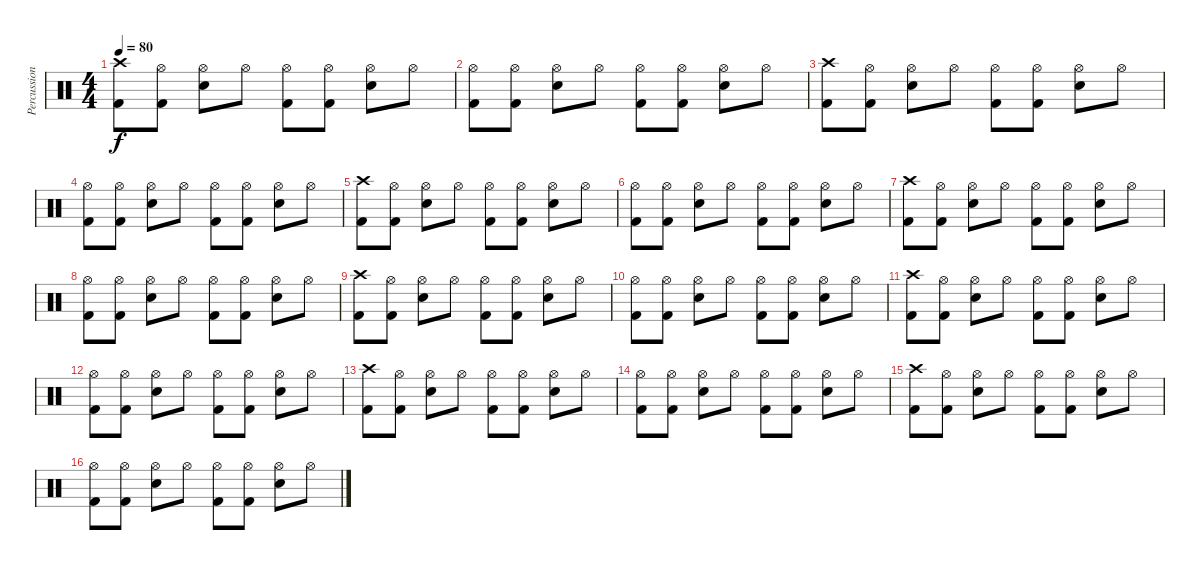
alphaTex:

\track ("Percussion" "Percussion") {instrument percussion}
\staff {score}
\articulation defaults
\ts (4 4)
\tempo 80
\clef neutral
\ks c
("Crash high (hit)" "Kick (hit) 2").8{dy f} ("Kick (hit) 2" "Hi-Hat (open)").8 ("Electric Snare (hit)" "Hi-Hat (open)").8 "Hi-Hat (open)".8 ("Hi-Hat (open)" "Kick (hit) 2").8 ("Hi-Hat (open)" "Kick (hit) 2").8 ("Electric Snare (hit)" "Hi-Hat (open)").8 "Hi-Hat (open)".8 |
("Hi-Hat (open)" "Kick (hit) 2").8 ("Kick (hit) 2" "Hi-Hat (open)").8 ("Electric Snare (hit)" "Hi-Hat (open)").8 "Hi-Hat (open)".8 ("Hi-Hat (open)" "Kick (hit) 2").8 ("Hi-Hat (open)" "Kick (hit) 2").8 ("Electric Snare (hit)" "Hi-Hat (open)").8 "Hi-Hat (open)".8 |
("Crash high (hit)" "Kick (hit) 2").8 ("Kick (hit) 2" "Hi-Hat (open)").8 ("Electric Snare (hit)" "Hi-Hat (open)").8 "Hi-Hat (open)".8 ("Hi-Hat (open)" "Kick (hit) 2").8 ("Hi-Hat (open)" "Kick (hit) 2").8 ("Electric Snare (hit)" "Hi-Hat (open)").8 "Hi-Hat (open)".8 |
("Hi-Hat (open)" "Kick (hit) 2").8 ("Kick (hit) 2" "Hi-Hat (open)").8 ("Electric Snare (hit)" "Hi-Hat (open)").8 "Hi-Hat (open)".8 ("Hi-Hat (open)" "Kick (hit) 2").8 ("Hi-Hat (open)" "Kick (hit) 2").8 ("Electric Snare (hit)" "Hi-Hat (open)").8 "Hi-Hat (open)".8 |
("Crash high (hit)" "Kick (hit) 2").8 ("Kick (hit) 2" "Hi-Hat (open)").8 ("Electric Snare (hit)" "Hi-Hat (open)").8 "Hi-Hat (open)".8 ("Hi-Hat (open)" "Kick (hit) 2").8 ("Hi-Hat (open)" "Kick (hit) 2").8 ("Electric Snare (hit)" "Hi-Hat (open)").8 "Hi-Hat (open)".8 |
("Hi-Hat (open)" "Kick (hit) 2").8 ("Kick (hit) 2" "Hi-Hat (open)").8 ("Electric Snare (hit)" "Hi-Hat (open)").8 "Hi-Hat (open)".8 ("Hi-Hat (open)" "Kick (hit) 2").8 ("Hi-Hat (open)" "Kick (hit) 2").8 ("Electric Snare (hit)" "Hi-Hat (open)").8 "Hi-Hat (open)".8 |
("Crash high (hit)" "Kick (hit) 2").8 ("Kick (hit) 2" "Hi-Hat (open)").8 ("Electric Snare (hit)" "Hi-Hat (open)").8 "Hi-Hat (open)".8 ("Hi-Hat (open)" "Kick (hit) 2").8 ("Hi-Hat (open)" "Kick (hit) 2").8 ("Electric Snare (hit)" "Hi-Hat (open)").8 "Hi-Hat (open)".8 |
("Hi-Hat (open)" "Kick (hit) 2").8 ("Kick (hit) 2" "Hi-Hat (open)").8 ("Electric Snare (hit)" "Hi-Hat (open)").8 "Hi-Hat (open)".8 ("Hi-Hat (open)" "Kick (hit) 2").8 ("Hi-Hat (open)" "Kick (hit) 2").8 ("Electric Snare (hit)" "Hi-Hat (open)").8 "Hi-Hat (open)".8 |
("Crash high (hit)" "Kick (hit) 2").8 ("Kick (hit) 2" "Hi-Hat (open)").8 ("Electric Snare (hit)" "Hi-Hat (open)").8 "Hi-Hat (open)".8 ("Hi-Hat (open)" "Kick (hit) 2").8 ("Hi-Hat (open)" "Kick (hit) 2").8 ("Electric Snare (hit)" "Hi-Hat (open)").8 "Hi-Hat (open)".8 |
("Hi-Hat (open)" "Kick (hit) 2").8 ("Kick (hit) 2" "Hi-Hat (open)").8 ("Electric Snare (hit)" "Hi-Hat (open)").8 "Hi-Hat (open)".8 ("Hi-Hat (open)" "Kick (hit) 2").8 ("Hi-Hat (open)" "Kick (hit) 2").8 ("Electric Snare (hit)" "Hi-Hat (open)").8 "Hi-Hat (open)".8 |
("Crash high (hit)" "Kick (hit) 2").8 ("Kick (hit) 2" "Hi-Hat (open)").8 ("Electric Snare (hit)" "Hi-Hat (open)").8 "Hi-Hat (open)".8 ("Hi-Hat (open)" "Kick (hit) 2").8 ("Hi-Hat (open)" "Kick (hit) 2").8 ("Electric Snare (hit)" "Hi-Hat (open)").8 "Hi-Hat (open)".8 |
("Hi-Hat (open)" "Kick (hit) 2").8 ("Kick (hit) 2" "Hi-Hat (open)").8 ("Electric Snare (hit)" "Hi-Hat (open)").8 "Hi-Hat (open)".8 ("Hi-Hat (open)" "Kick (hit) 2").8 ("Hi-Hat (open)" "Kick (hit) 2").8 ("Electric Snare (hit)" "Hi-Hat (open)").8 "Hi-Hat (open)".8 |
("Crash high (hit)" "Kick (hit) 2").8 ("Kick (hit) 2" "Hi-Hat (open)").8 ("Electric Snare (hit)" "Hi-Hat (open)").8 "Hi-Hat (open)".8 ("Hi-Hat (open)" "Kick (hit) 2").8 ("Hi-Hat (open)" "Kick (hit) 2").8 ("Electric Snare (hit)" "Hi-Hat (open)").8 "Hi-Hat (open)".8 |
("Hi-Hat (open)" "Kick (hit) 2").8 ("Kick (hit) 2" "Hi-Hat (open)").8 ("Electric Snare (hit)" "Hi-Hat (open)").8 "Hi-Hat (open)".8 ("Hi-Hat (open)" "Kick (hit) 2").8 ("Hi-Hat (open)" "Kick (hit) 2").8 ("Electric Snare (hit)" "Hi-Hat (open)").8 "Hi-Hat (open)".8 |
("Crash high (hit)" "Kick (hit) 2").8 ("Kick (hit) 2" "Hi-Hat (open)").8 ("Electric Snare (hit)" "Hi-Hat (open)").8 "Hi-Hat (open)".8 ("Hi-Hat (open)" "Kick (hit) 2").8 ("Hi-Hat (open)" "Kick (hit) 2").8 ("Electric Snare (hit)" "Hi-Hat (open)").8 "Hi-Hat (open)".8 |
("Hi-Hat (open)" "Kick (hit) 2").8 ("Kick (hit) 2" "Hi-Hat (open)").8 ("Electric Snare (hit)" "Hi-Hat (open)").8 "Hi-Hat (open)".8 ("Hi-Hat (open)" "Kick (hit) 2").8 ("Hi-Hat (open)" "Kick (hit) 2").8 ("Electric Snare (hit)" "Hi-Hat (open)").8 "Hi-Hat (open)".8
